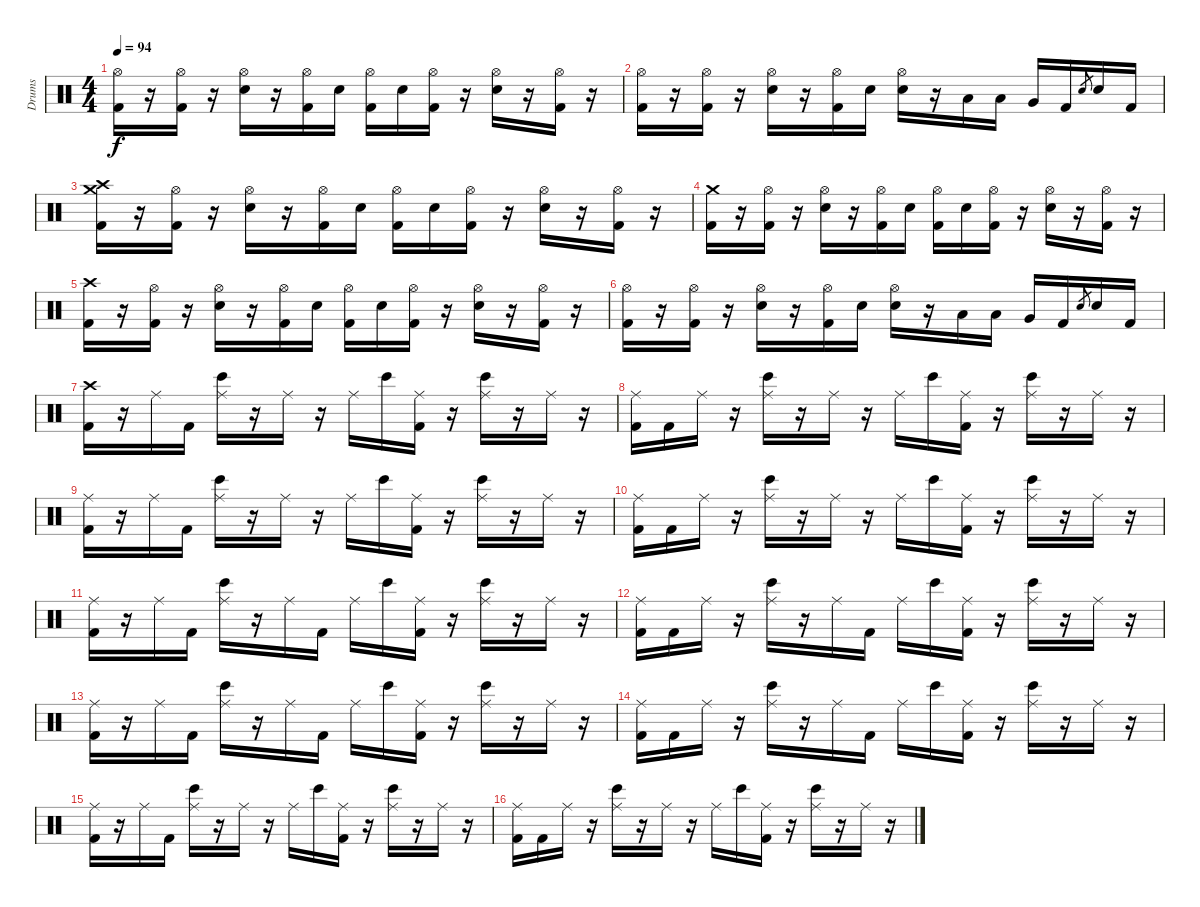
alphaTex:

\track ("Drums" "Drums") {instrument percussion}
\staff {score}
\articulation defaults
\ts (4 4)
\tempo 94
\clef neutral
\ks c
("Hi-Hat (open)" "Kick (hit) 2").16{dy f} r.16 ("Hi-Hat (open)" "Kick (hit) 2").16 r.16 ("Hi-Hat (open)" "Snare (hit) 2").16 r.16 ("Hi-Hat (open)" "Kick (hit) 2").16 "Snare (hit) 2".16 ("Hi-Hat (open)" "Kick (hit) 2").16 "Snare (hit) 2".16 ("Hi-Hat (open)" "Kick (hit) 2").16 r.16 ("Hi-Hat (open)" "Snare (hit) 2").16 r.16 ("Hi-Hat (open)" "Kick (hit) 2").16 r.16 |
("Hi-Hat (open)" "Kick (hit) 2").16 r.16 ("Hi-Hat (open)" "Kick (hit) 2").16 r.16 ("Hi-Hat (open)" "Snare (hit) 2").16 r.16 ("Hi-Hat (open)" "Kick (hit) 2").16 "Snare (hit) 2".16 ("Hi-Hat (open)" "Snare (hit) 2").16 r.16 "Low Tom (hit)".16 "Low Tom (hit)".16 "Very Low Tom (hit)".16 "Kick (hit) 2".16 "Snare (hit) 2".8{gr} "Snare (hit) 2".16 "Kick (hit) 2".16 |
("Crash high (hit)" "Crash medium (hit)" "Kick (hit) 2").16 r.16 ("Hi-Hat (open)" "Kick (hit) 2").16 r.16 ("Hi-Hat (open)" "Snare (hit) 2").16 r.16 ("Hi-Hat (open)" "Kick (hit) 2").16 "Snare (hit) 2".16 ("Hi-Hat (open)" "Kick (hit) 2").16 "Snare (hit) 2".16 ("Hi-Hat (open)" "Kick (hit) 2").16 r.16 ("Hi-Hat (open)" "Snare (hit) 2").16 r.16 ("Hi-Hat (open)" "Kick (hit) 2").16 r.16 |
("Crash medium (hit)" "Kick (hit) 2").16 r.16 ("Hi-Hat (open)" "Kick (hit) 2").16 r.16 ("Hi-Hat (open)" "Snare (hit) 2").16 r.16 ("Hi-Hat (open)" "Kick (hit) 2").16 "Snare (hit) 2".16 ("Hi-Hat (open)" "Kick (hit) 2").16 "Snare (hit) 2".16 ("Hi-Hat (open)" "Kick (hit) 2").16 r.16 ("Hi-Hat (open)" "Snare (hit) 2").16 r.16 ("Hi-Hat (open)" "Kick (hit) 2").16 r.16 |
("Crash high (hit)" "Kick (hit) 2").16 r.16 ("Hi-Hat (open)" "Kick (hit) 2").16 r.16 ("Hi-Hat (open)" "Snare (hit) 2").16 r.16 ("Hi-Hat (open)" "Kick (hit) 2").16 "Snare (hit) 2".16 ("Hi-Hat (open)" "Kick (hit) 2").16 "Snare (hit) 2".16 ("Hi-Hat (open)" "Kick (hit) 2").16 r.16 ("Hi-Hat (open)" "Snare (hit) 2").16 r.16 ("Hi-Hat (open)" "Kick (hit) 2").16 r.16 |
("Hi-Hat (open)" "Kick (hit) 2").16 r.16 ("Hi-Hat (open)" "Kick (hit) 2").16 r.16 ("Hi-Hat (open)" "Snare (hit) 2").16 r.16 ("Hi-Hat (open)" "Kick (hit) 2").16 "Snare (hit) 2".16 ("Hi-Hat (open)" "Snare (hit) 2").16 r.16 "Low Tom (hit)".16 "Low Tom (hit)".16 "Very Low Tom (hit)".16 "Kick (hit) 2".16 "Snare (hit) 2".8{gr} "Snare (hit) 2".16 "Kick (hit) 2".16 |
("Crash high (hit)" "Kick (hit) 2").16 r.16 "Ride (middle)".16 "Kick (hit) 2".16 ("Ride (middle)" "Bongo High (hit)").16 r.16 "Ride (middle)".16 r.16 "Ride (middle)".16 "Bongo High (hit)".16 ("Ride (middle)" "Kick (hit) 2").16 r.16 ("Ride (middle)" "Bongo High (hit)").16 r.16 "Ride (middle)".16 r.16 |
("Ride (middle)" "Kick (hit) 2").16 "Kick (hit) 2".16 "Ride (middle)".16 r.16 ("Ride (middle)" "Bongo High (hit)").16 r.16 "Ride (middle)".16 r.16 "Ride (middle)".16 "Bongo High (hit)".16 ("Ride (middle)" "Kick (hit) 2").16 r.16 ("Ride (middle)" "Bongo High (hit)").16 r.16 "Ride (middle)".16 r.16 |
("Ride (middle)" "Kick (hit) 2").16 r.16 "Ride (middle)".16 "Kick (hit) 2".16 ("Ride (middle)" "Bongo High (hit)").16 r.16 "Ride (middle)".16 r.16 "Ride (middle)".16 "Bongo High (hit)".16 ("Ride (middle)" "Kick (hit) 2").16 r.16 ("Ride (middle)" "Bongo High (hit)").16 r.16 "Ride (middle)".16 r.16 |
("Ride (middle)" "Kick (hit) 2").16 "Kick (hit) 2".16 "Ride (middle)".16 r.16 ("Ride (middle)" "Bongo High (hit)").16 r.16 "Ride (middle)".16 r.16 "Ride (middle)".16 "Bongo High (hit)".16 ("Ride (middle)" "Kick (hit) 2").16 r.16 ("Ride (middle)" "Bongo High (hit)").16 r.16 "Ride (middle)".16 r.16 |
("Ride (middle)" "Kick (hit) 2").16 r.16 "Ride (middle)".16 "Kick (hit) 2".16 ("Ride (middle)" "Bongo High (hit)").16 r.16 "Ride (middle)".16 "Kick (hit) 2".16 "Ride (middle)".16 "Bongo High (hit)".16 ("Ride (middle)" "Kick (hit) 2").16 r.16 ("Ride (middle)" "Bongo High (hit)").16 r.16 "Ride (middle)".16 r.16 |
("Ride (middle)" "Kick (hit) 2").16 "Kick (hit) 2".16 "Ride (middle)".16 r.16 ("Ride (middle)" "Bongo High (hit)").16 r.16 "Ride (middle)".16 "Kick (hit) 2".16 "Ride (middle)".16 "Bongo High (hit)".16 ("Ride (middle)" "Kick (hit) 2").16 r.16 ("Ride (middle)" "Bongo High (hit)").16 r.16 "Ride (middle)".16 r.16 |
("Ride (middle)" "Kick (hit) 2").16 r.16 "Ride (middle)".16 "Kick (hit) 2".16 ("Ride (middle)" "Bongo High (hit)").16 r.16 "Ride (middle)".16 "Kick (hit) 2".16 "Ride (middle)".16 "Bongo High (hit)".16 ("Ride (middle)" "Kick (hit) 2").16 r.16 ("Ride (middle)" "Bongo High (hit)").16 r.16 "Ride (middle)".16 r.16 |
("Ride (middle)" "Kick (hit) 2").16 "Kick (hit) 2".16 "Ride (middle)".16 r.16 ("Ride (middle)" "Bongo High (hit)").16 r.16 "Ride (middle)".16 "Kick (hit) 2".16 "Ride (middle)".16 "Bongo High (hit)".16 ("Ride (middle)" "Kick (hit) 2").16 r.16 ("Ride (middle)" "Bongo High (hit)").16 r.16 "Ride (middle)".16 r.16 |
("Ride (middle)" "Kick (hit) 2").16 r.16 "Ride (middle)".16 "Kick (hit) 2".16 ("Ride (middle)" "Bongo High (hit)").16 r.16 "Ride (middle)".16 r.16 "Ride (middle)".16 "Bongo High (hit)".16 ("Ride (middle)" "Kick (hit) 2").16 r.16 ("Ride (middle)" "Bongo High (hit)").16 r.16 "Ride (middle)".16 r.16 |
("Ride (middle)" "Kick (hit) 2").16 "Kick (hit) 2".16 "Ride (middle)".16 r.16 ("Ride (middle)" "Bongo High (hit)").16 r.16 "Ride (middle)".16 r.16 "Ride (middle)".16 "Bongo High (hit)".16 ("Ride (middle)" "Kick (hit) 2").16 r.16 ("Ride (middle)" "Bongo High (hit)").16 r.16 "Ride (middle)".16 r.16
